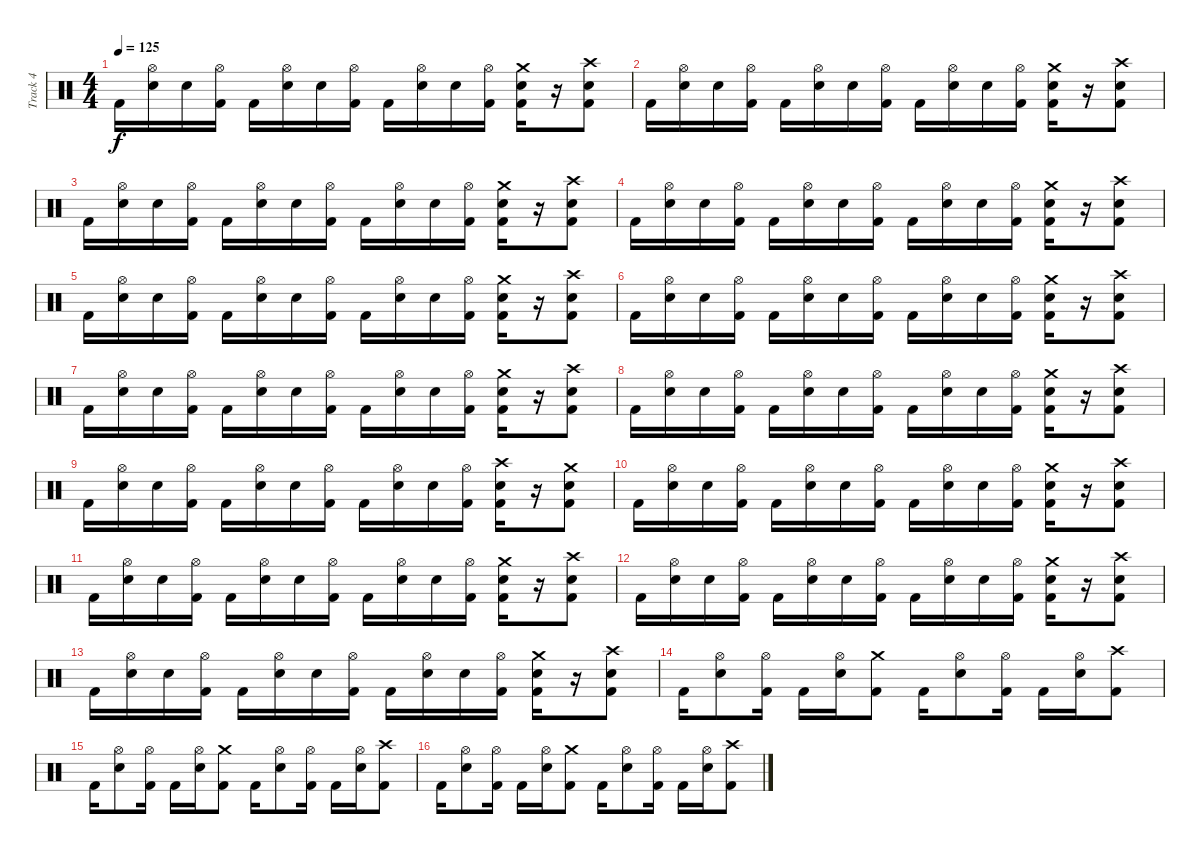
\track ("Track 4" "Track 4") {instrument percussion}
\staff {score}
\articulation defaults
\ts (4 4)
\tempo 125
\clef neutral
\ks c "Kick (hit) 2".16{dy f}
("Hi-Hat (open)" "Electric Snare (hit)").16 "Electric Snare (hit)".16 ("Hi-Hat (open)" "Kick (hit) 2").16 "Kick (hit) 2".16 ("Hi-Hat (open)" "Electric Snare (hit)").16 "Electric Snare (hit)".16 ("Hi-Hat (open)" "Kick (hit) 2").16 "Kick (hit) 2".16 ("Hi-Hat (open)" "Electric Snare (hit)").16 "Electric Snare (hit)".16 ("Hi-Hat (open)" "Kick (hit) 2").16 ("Crash medium (hit)" "Electric Snare (hit)" "Kick (hit) 2").16 r.16 ("Crash high (hit)" "Electric Snare (hit)" "Kick (hit) 2").8 |
"Kick (hit) 2".16 ("Hi-Hat (open)" "Electric Snare (hit)").16 "Electric Snare (hit)".16 ("Hi-Hat (open)" "Kick (hit) 2").16 "Kick (hit) 2".16 ("Hi-Hat (open)" "Electric Snare (hit)").16 "Electric Snare (hit)".16 ("Hi-Hat (open)" "Kick (hit) 2").16 "Kick (hit) 2".16 ("Hi-Hat (open)" "Electric Snare (hit)").16 "Electric Snare (hit)".16 ("Hi-Hat (open)" "Kick (hit) 2").16 ("Crash medium (hit)" "Electric Snare (hit)" "Kick (hit) 2").16 r.16 ("Crash high (hit)" "Electric Snare (hit)" "Kick (hit) 2").8 |
"Kick (hit) 2".16 ("Hi-Hat (open)" "Electric Snare (hit)").16 "Electric Snare (hit)".16 ("Hi-Hat (open)" "Kick (hit) 2").16 "Kick (hit) 2".16 ("Hi-Hat (open)" "Electric Snare (hit)").16 "Electric Snare (hit)".16 ("Hi-Hat (open)" "Kick (hit) 2").16 "Kick (hit) 2".16 ("Hi-Hat (open)" "Electric Snare (hit)").16 "Electric Snare (hit)".16 ("Hi-Hat (open)" "Kick (hit) 2").16 ("Crash medium (hit)" "Electric Snare (hit)" "Kick (hit) 2").16 r.16 ("Crash high (hit)" "Electric Snare (hit)" "Kick (hit) 2").8 |
"Kick (hit) 2".16 ("Hi-Hat (open)" "Electric Snare (hit)").16 "Electric Snare (hit)".16 ("Hi-Hat (open)" "Kick (hit) 2").16 "Kick (hit) 2".16 ("Hi-Hat (open)" "Electric Snare (hit)").16 "Electric Snare (hit)".16 ("Hi-Hat (open)" "Kick (hit) 2").16 "Kick (hit) 2".16 ("Hi-Hat (open)" "Electric Snare (hit)").16 "Electric Snare (hit)".16 ("Hi-Hat (open)" "Kick (hit) 2").16 ("Crash medium (hit)" "Electric Snare (hit)" "Kick (hit) 2").16 r.16 ("Crash high (hit)" "Electric Snare (hit)" "Kick (hit) 2").8 |
"Kick (hit) 2".16 ("Hi-Hat (open)" "Electric Snare (hit)").16 "Electric Snare (hit)".16 ("Hi-Hat (open)" "Kick (hit) 2").16 "Kick (hit) 2".16 ("Hi-Hat (open)" "Electric Snare (hit)").16 "Electric Snare (hit)".16 ("Hi-Hat (open)" "Kick (hit) 2").16 "Kick (hit) 2".16 ("Hi-Hat (open)" "Electric Snare (hit)").16 "Electric Snare (hit)".16 ("Hi-Hat (open)" "Kick (hit) 2").16 ("Crash medium (hit)" "Electric Snare (hit)" "Kick (hit) 2").16 r.16 ("Crash high (hit)" "Electric Snare (hit)" "Kick (hit) 2").8 |
"Kick (hit) 2".16 ("Hi-Hat (open)" "Electric Snare (hit)").16 "Electric Snare (hit)".16 ("Hi-Hat (open)" "Kick (hit) 2").16 "Kick (hit) 2".16 ("Hi-Hat (open)" "Electric Snare (hit)").16 "Electric Snare (hit)".16 ("Hi-Hat (open)" "Kick (hit) 2").16 "Kick (hit) 2".16 ("Hi-Hat (open)" "Electric Snare (hit)").16 "Electric Snare (hit)".16 ("Hi-Hat (open)" "Kick (hit) 2").16 ("Crash medium (hit)" "Electric Snare (hit)" "Kick (hit) 2").16 r.16 ("Crash high (hit)" "Electric Snare (hit)" "Kick (hit) 2").8 |
"Kick (hit) 2".16 ("Hi-Hat (open)" "Electric Snare (hit)").16 "Electric Snare (hit)".16 ("Hi-Hat (open)" "Kick (hit) 2").16 "Kick (hit) 2".16 ("Hi-Hat (open)" "Electric Snare (hit)").16 "Electric Snare (hit)".16 ("Hi-Hat (open)" "Kick (hit) 2").16 "Kick (hit) 2".16 ("Hi-Hat (open)" "Electric Snare (hit)").16 "Electric Snare (hit)".16 ("Hi-Hat (open)" "Kick (hit) 2").16 ("Crash medium (hit)" "Electric Snare (hit)" "Kick (hit) 2").16 r.16 ("Crash high (hit)" "Electric Snare (hit)" "Kick (hit) 2").8 |
"Kick (hit) 2".16 ("Hi-Hat (open)" "Electric Snare (hit)").16 "Electric Snare (hit)".16 ("Hi-Hat (open)" "Kick (hit) 2").16 "Kick (hit) 2".16 ("Hi-Hat (open)" "Electric Snare (hit)").16 "Electric Snare (hit)".16 ("Hi-Hat (open)" "Kick (hit) 2").16 "Kick (hit) 2".16 ("Hi-Hat (open)" "Electric Snare (hit)").16 "Electric Snare (hit)".16 ("Hi-Hat (open)" "Kick (hit) 2").16 ("Crash medium (hit)" "Electric Snare (hit)" "Kick (hit) 2").16 r.16 ("Crash high (hit)" "Electric Snare (hit)" "Kick (hit) 2").8 |
"Kick (hit) 2".16 ("Hi-Hat (open)" "Electric Snare (hit)").16 "Electric Snare (hit)".16 ("Hi-Hat (open)" "Kick (hit) 2").16 "Kick (hit) 2".16 ("Hi-Hat (open)" "Electric Snare (hit)").16 "Electric Snare (hit)".16 ("Hi-Hat (open)" "Kick (hit) 2").16 "Kick (hit) 2".16 ("Hi-Hat (open)" "Electric Snare (hit)").16 "Electric Snare (hit)".16 ("Hi-Hat (open)" "Kick (hit) 2").16 ("Crash high (hit)" "Electric Snare (hit)" "Kick (hit) 2").16 r.16 ("Crash medium (hit)" "Electric Snare (hit)" "Kick (hit) 2").8 |
"Kick (hit) 2".16 ("Hi-Hat (open)" "Electric Snare (hit)").16 "Electric Snare (hit)".16 ("Hi-Hat (open)" "Kick (hit) 2").16 "Kick (hit) 2".16 ("Hi-Hat (open)" "Electric Snare (hit)").16 "Electric Snare (hit)".16 ("Hi-Hat (open)" "Kick (hit) 2").16 "Kick (hit) 2".16 ("Hi-Hat (open)" "Electric Snare (hit)").16 "Electric Snare (hit)".16 ("Hi-Hat (open)" "Kick (hit) 2").16 ("Crash medium (hit)" "Electric Snare (hit)" "Kick (hit) 2").16 r.16 ("Crash high (hit)" "Electric Snare (hit)" "Kick (hit) 2").8 |
"Kick (hit) 2".16 ("Hi-Hat (open)" "Electric Snare (hit)").16 "Electric Snare (hit)".16 ("Hi-Hat (open)" "Kick (hit) 2").16 "Kick (hit) 2".16 ("Hi-Hat (open)" "Electric Snare (hit)").16 "Electric Snare (hit)".16 ("Hi-Hat (open)" "Kick (hit) 2").16 "Kick (hit) 2".16 ("Hi-Hat (open)" "Electric Snare (hit)").16 "Electric Snare (hit)".16 ("Hi-Hat (open)" "Kick (hit) 2").16 ("Crash medium (hit)" "Electric Snare (hit)" "Kick (hit) 2").16 r.16 ("Crash high (hit)" "Electric Snare (hit)" "Kick (hit) 2").8 |
"Kick (hit) 2".16 ("Hi-Hat (open)" "Electric Snare (hit)").16 "Electric Snare (hit)".16 ("Hi-Hat (open)" "Kick (hit) 2").16 "Kick (hit) 2".16 ("Hi-Hat (open)" "Electric Snare (hit)").16 "Electric Snare (hit)".16 ("Hi-Hat (open)" "Kick (hit) 2").16 "Kick (hit) 2".16 ("Hi-Hat (open)" "Electric Snare (hit)").16 "Electric Snare (hit)".16 ("Hi-Hat (open)" "Kick (hit) 2").16 ("Crash medium (hit)" "Electric Snare (hit)" "Kick (hit) 2").16 r.16 ("Crash high (hit)" "Electric Snare (hit)" "Kick (hit) 2").8 |
"Kick (hit) 2".16 ("Hi-Hat (open)" "Electric Snare (hit)").16 "Electric Snare (hit)".16 ("Hi-Hat (open)" "Kick (hit) 2").16 "Kick (hit) 2".16 ("Hi-Hat (open)" "Electric Snare (hit)").16 "Electric Snare (hit)".16 ("Hi-Hat (open)" "Kick (hit) 2").16 "Kick (hit) 2".16 ("Hi-Hat (open)" "Electric Snare (hit)").16 "Electric Snare (hit)".16 ("Hi-Hat (open)" "Kick (hit) 2").16 ("Crash medium (hit)" "Electric Snare (hit)" "Kick (hit) 2").16 r.16 ("Crash high (hit)" "Electric Snare (hit)" "Kick (hit) 2").8 |
"Kick (hit) 2".16 ("Hi-Hat (open)" "Electric Snare (hit)").8 ("Hi-Hat (open)" "Kick (hit) 2").16 "Kick (hit) 2".16 ("Hi-Hat (open)" "Electric Snare (hit)").16 ("Crash medium (hit)" "Kick (hit) 2").8 "Kick (hit) 2".16 ("Hi-Hat (open)" "Electric Snare (hit)").8 ("Hi-Hat (open)" "Kick (hit) 2").16 "Kick (hit) 2".16 ("Hi-Hat (open)" "Electric Snare (hit)").16 ("Crash high (hit)" "Kick (hit) 2").8 |
"Kick (hit) 2".16 ("Hi-Hat (open)" "Electric Snare (hit)").8 ("Hi-Hat (open)" "Kick (hit) 2").16 "Kick (hit) 2".16 ("Hi-Hat (open)" "Electric Snare (hit)").16 ("Crash medium (hit)" "Kick (hit) 2").8 "Kick (hit) 2".16 ("Hi-Hat (open)" "Electric Snare (hit)").8 ("Hi-Hat (open)" "Kick (hit) 2").16 "Kick (hit) 2".16 ("Hi-Hat (open)" "Electric Snare (hit)").16 ("Crash high (hit)" "Kick (hit) 2").8 |
"Kick (hit) 2".16 ("Hi-Hat (open)" "Electric Snare (hit)").8 ("Hi-Hat (open)" "Kick (hit) 2").16 "Kick (hit) 2".16 ("Hi-Hat (open)" "Electric Snare (hit)").16 ("Crash medium (hit)" "Kick (hit) 2").8 "Kick (hit) 2".16 ("Hi-Hat (open)" "Electric Snare (hit)").8 ("Hi-Hat (open)" "Kick (hit) 2").16 "Kick (hit) 2".16 ("Hi-Hat (open)" "Electric Snare (hit)").16 ("Crash high (hit)" "Kick (hit) 2").8
